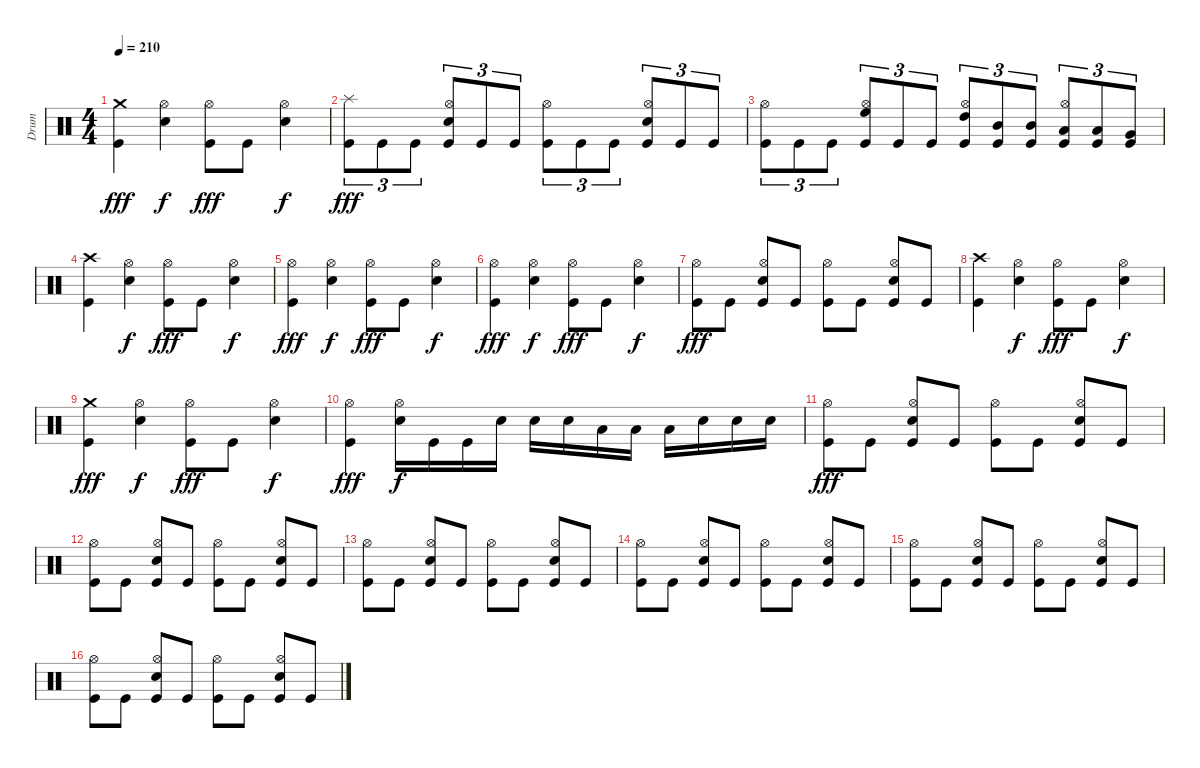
\track ("Drum" "Drum") {instrument percussion}
\staff {score}
\articulation defaults
\ts (4 4)
\tempo 210
\clef neutral
\ks c
("Crash medium (hit)" "Kick (hit)").4{dy fff} ("Hi-Hat (open)" "Snare (hit) 2").4{dy f} ("Hi-Hat (open)" "Kick (hit)").8{dy fff} "Kick (hit)".8 ("Hi-Hat (open)" "Snare (hit) 2").4{dy f} |
("Splash (hit)" "Kick (hit)").8{tu (3 2) dy fff} "Kick (hit)".8{tu (3 2)} "Kick (hit)".8{tu (3 2)} ("Hi-Hat (open)" "Snare (hit) 2" "Kick (hit)").8{tu (3 2)} "Kick (hit)".8{tu (3 2)} "Kick (hit)".8{tu (3 2)} ("Hi-Hat (open)" "Kick (hit)").8{tu (3 2)} "Kick (hit)".8{tu (3 2)} "Kick (hit)".8{tu (3 2)} ("Hi-Hat (open)" "Snare (hit) 2" "Kick (hit)").8{tu (3 2)} "Kick (hit)".8{tu (3 2)} "Kick (hit)".8{tu (3 2)} |
("Hi-Hat (open)" "Kick (hit)").8{tu (3 2)} "Kick (hit)".8{tu (3 2)} "Kick (hit)".8{tu (3 2)} ("Hi-Hat (open)" "High Floor Tom (hit)" "Kick (hit)").8{tu (3 2)} "Kick (hit)".8{tu (3 2)} "Kick (hit)".8{tu (3 2)} ("Hi-Hat (open)" "High Tom (hit)" "Kick (hit)").8{tu (3 2)} ("Mid Tom (hit)" "Kick (hit)").8{tu (3 2)} ("Mid Tom (hit)" "Kick (hit)").8{tu (3 2)} ("Hi-Hat (open)" "Low Tom (hit)" "Kick (hit)").8{tu (3 2)} ("Low Tom (hit)" "Kick (hit)").8{tu (3 2)} ("Very Low Tom (hit)" "Kick (hit)").8{tu (3 2)} |
("Crash high (hit)" "Kick (hit)").4 ("Hi-Hat (open)" "Snare (hit) 2").4{dy f} ("Hi-Hat (open)" "Kick (hit)").8{dy fff} "Kick (hit)".8 ("Hi-Hat (open)" "Snare (hit) 2").4{dy f} |
("Hi-Hat (open)" "Kick (hit)").4{dy fff} ("Hi-Hat (open)" "Snare (hit) 2").4{dy f} ("Hi-Hat (open)" "Kick (hit)").8{dy fff} "Kick (hit)".8 ("Hi-Hat (open)" "Snare (hit) 2").4{dy f} |
("Hi-Hat (open)" "Kick (hit)").4{dy fff} ("Hi-Hat (open)" "Snare (hit) 2").4{dy f} ("Hi-Hat (open)" "Kick (hit)").8{dy fff} "Kick (hit)".8 ("Hi-Hat (open)" "Snare (hit) 2").4{dy f} |
("Hi-Hat (open)" "Kick (hit)").8{dy fff} "Kick (hit)".8 ("Hi-Hat (open)" "Snare (hit) 2" "Kick (hit)").8 "Kick (hit)".8 ("Hi-Hat (open)" "Kick (hit)").8 "Kick (hit)".8 ("Hi-Hat (open)" "Snare (hit) 2" "Kick (hit)").8 "Kick (hit)".8 |
("Crash high (hit)" "Kick (hit)").4 ("Hi-Hat (open)" "Snare (hit) 2").4{dy f} ("Hi-Hat (open)" "Kick (hit)").8{dy fff} "Kick (hit)".8 ("Hi-Hat (open)" "Snare (hit) 2").4{dy f} |
("Crash medium (hit)" "Kick (hit)").4{dy fff} ("Hi-Hat (open)" "Snare (hit) 2").4{dy f} ("Hi-Hat (open)" "Kick (hit)").8{dy fff} "Kick (hit)".8 ("Hi-Hat (open)" "Snare (hit) 2").4{dy f} |
("Hi-Hat (open)" "Kick (hit)").4{dy fff} ("Hi-Hat (open)" "Snare (hit) 2").16{dy f} "Kick (hit)".16 "Kick (hit)".16 "Snare (hit) 2".16 "Snare (hit) 2".16 "Snare (hit) 2".16 "Low Tom (hit)".16 "Low Tom (hit)".16 "Low Tom (hit)".16 "Snare (hit) 2".16 "Snare (hit) 2".16 "Snare (hit) 2".16 |
("Hi-Hat (open)" "Kick (hit)").8{dy fff} "Kick (hit)".8 ("Hi-Hat (open)" "Snare (hit) 2" "Kick (hit)").8 "Kick (hit)".8 ("Hi-Hat (open)" "Kick (hit)").8 "Kick (hit)".8 ("Hi-Hat (open)" "Snare (hit) 2" "Kick (hit)").8 "Kick (hit)".8 |
("Hi-Hat (open)" "Kick (hit)").8 "Kick (hit)".8 ("Hi-Hat (open)" "Snare (hit) 2" "Kick (hit)").8 "Kick (hit)".8 ("Hi-Hat (open)" "Kick (hit)").8 "Kick (hit)".8 ("Hi-Hat (open)" "Snare (hit) 2" "Kick (hit)").8 "Kick (hit)".8 |
("Hi-Hat (open)" "Kick (hit)").8 "Kick (hit)".8 ("Hi-Hat (open)" "Snare (hit) 2" "Kick (hit)").8 "Kick (hit)".8 ("Hi-Hat (open)" "Kick (hit)").8 "Kick (hit)".8 ("Hi-Hat (open)" "Snare (hit) 2" "Kick (hit)").8 "Kick (hit)".8 |
("Hi-Hat (open)" "Kick (hit)").8 "Kick (hit)".8 ("Hi-Hat (open)" "Snare (hit) 2" "Kick (hit)").8 "Kick (hit)".8 ("Hi-Hat (open)" "Kick (hit)").8 "Kick (hit)".8 ("Hi-Hat (open)" "Snare (hit) 2" "Kick (hit)").8 "Kick (hit)".8 |
("Hi-Hat (open)" "Kick (hit)").8 "Kick (hit)".8 ("Hi-Hat (open)" "Snare (hit) 2" "Kick (hit)").8 "Kick (hit)".8 ("Hi-Hat (open)" "Kick (hit)").8 "Kick (hit)".8 ("Hi-Hat (open)" "Snare (hit) 2" "Kick (hit)").8 "Kick (hit)".8 |
("Hi-Hat (open)" "Kick (hit)").8 "Kick (hit)".8 ("Hi-Hat (open)" "Snare (hit) 2" "Kick (hit)").8 "Kick (hit)".8 ("Hi-Hat (open)" "Kick (hit)").8 "Kick (hit)".8 ("Hi-Hat (open)" "Snare (hit) 2" "Kick (hit)").8 "Kick (hit)".8
